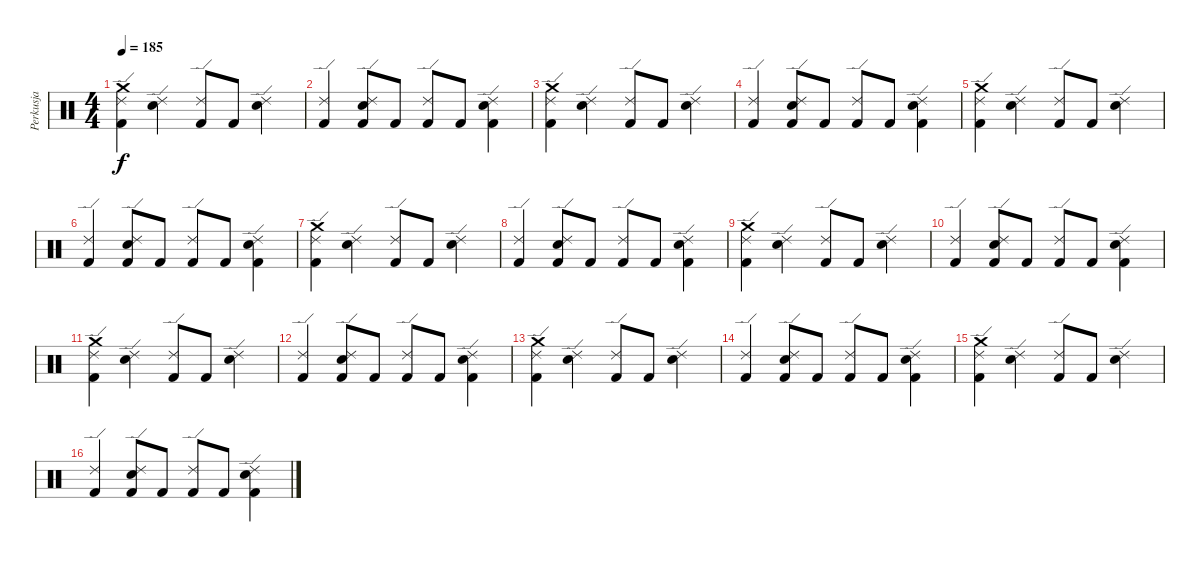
\track ("Perkusja" "Perkusja") {instrument percussion}
\staff {score}
\articulation defaults
\ts (4 4)
\tempo 185
\clef neutral
\ks c
("Crash medium (hit)" "Ride (edge) 2" "Kick (hit) 2").4{dy f} ("Electric Snare (hit)" "Ride (edge) 2").4 ("Ride (edge) 2" "Kick (hit) 2").8 "Kick (hit) 2".8 ("Electric Snare (hit)" "Ride (edge) 2").4 |
("Ride (edge) 2" "Kick (hit) 2").4 ("Electric Snare (hit)" "Ride (edge) 2" "Kick (hit) 2").8 "Kick (hit) 2".8 ("Ride (edge) 2" "Kick (hit) 2").8 "Kick (hit) 2".8 ("Electric Snare (hit)" "Ride (edge) 2" "Kick (hit) 2").4 |
("Crash medium (hit)" "Ride (edge) 2" "Kick (hit) 2").4 ("Electric Snare (hit)" "Ride (edge) 2").4 ("Ride (edge) 2" "Kick (hit) 2").8 "Kick (hit) 2".8 ("Electric Snare (hit)" "Ride (edge) 2").4 |
("Ride (edge) 2" "Kick (hit) 2").4 ("Electric Snare (hit)" "Ride (edge) 2" "Kick (hit) 2").8 "Kick (hit) 2".8 ("Ride (edge) 2" "Kick (hit) 2").8 "Kick (hit) 2".8 ("Electric Snare (hit)" "Ride (edge) 2" "Kick (hit) 2").4 |
("Crash medium (hit)" "Ride (edge) 2" "Kick (hit) 2").4 ("Electric Snare (hit)" "Ride (edge) 2").4 ("Ride (edge) 2" "Kick (hit) 2").8 "Kick (hit) 2".8 ("Electric Snare (hit)" "Ride (edge) 2").4 |
("Ride (edge) 2" "Kick (hit) 2").4 ("Electric Snare (hit)" "Ride (edge) 2" "Kick (hit) 2").8 "Kick (hit) 2".8 ("Ride (edge) 2" "Kick (hit) 2").8 "Kick (hit) 2".8 ("Electric Snare (hit)" "Ride (edge) 2" "Kick (hit) 2").4 |
("Crash medium (hit)" "Ride (edge) 2" "Kick (hit) 2").4 ("Electric Snare (hit)" "Ride (edge) 2").4 ("Ride (edge) 2" "Kick (hit) 2").8 "Kick (hit) 2".8 ("Electric Snare (hit)" "Ride (edge) 2").4 |
("Ride (edge) 2" "Kick (hit) 2").4 ("Electric Snare (hit)" "Ride (edge) 2" "Kick (hit) 2").8 "Kick (hit) 2".8 ("Ride (edge) 2" "Kick (hit) 2").8 "Kick (hit) 2".8 ("Electric Snare (hit)" "Ride (edge) 2" "Kick (hit) 2").4 |
("Crash medium (hit)" "Ride (edge) 2" "Kick (hit) 2").4 ("Electric Snare (hit)" "Ride (edge) 2").4 ("Ride (edge) 2" "Kick (hit) 2").8 "Kick (hit) 2".8 ("Electric Snare (hit)" "Ride (edge) 2").4 |
("Ride (edge) 2" "Kick (hit) 2").4 ("Electric Snare (hit)" "Ride (edge) 2" "Kick (hit) 2").8 "Kick (hit) 2".8 ("Ride (edge) 2" "Kick (hit) 2").8 "Kick (hit) 2".8 ("Electric Snare (hit)" "Ride (edge) 2" "Kick (hit) 2").4 |
("Crash medium (hit)" "Ride (edge) 2" "Kick (hit) 2").4 ("Electric Snare (hit)" "Ride (edge) 2").4 ("Ride (edge) 2" "Kick (hit) 2").8 "Kick (hit) 2".8 ("Electric Snare (hit)" "Ride (edge) 2").4 |
("Ride (edge) 2" "Kick (hit) 2").4 ("Electric Snare (hit)" "Ride (edge) 2" "Kick (hit) 2").8 "Kick (hit) 2".8 ("Ride (edge) 2" "Kick (hit) 2").8 "Kick (hit) 2".8 ("Electric Snare (hit)" "Ride (edge) 2" "Kick (hit) 2").4 |
("Crash medium (hit)" "Ride (edge) 2" "Kick (hit) 2").4 ("Electric Snare (hit)" "Ride (edge) 2").4 ("Ride (edge) 2" "Kick (hit) 2").8 "Kick (hit) 2".8 ("Electric Snare (hit)" "Ride (edge) 2").4 |
("Ride (edge) 2" "Kick (hit) 2").4 ("Electric Snare (hit)" "Ride (edge) 2" "Kick (hit) 2").8 "Kick (hit) 2".8 ("Ride (edge) 2" "Kick (hit) 2").8 "Kick (hit) 2".8 ("Electric Snare (hit)" "Ride (edge) 2" "Kick (hit) 2").4 |
("Crash medium (hit)" "Ride (edge) 2" "Kick (hit) 2").4 ("Electric Snare (hit)" "Ride (edge) 2").4 ("Ride (edge) 2" "Kick (hit) 2").8 "Kick (hit) 2".8 ("Electric Snare (hit)" "Ride (edge) 2").4 |
("Ride (edge) 2" "Kick (hit) 2").4 ("Electric Snare (hit)" "Ride (edge) 2" "Kick (hit) 2").8 "Kick (hit) 2".8 ("Ride (edge) 2" "Kick (hit) 2").8 "Kick (hit) 2".8 ("Electric Snare (hit)" "Ride (edge) 2" "Kick (hit) 2").4
